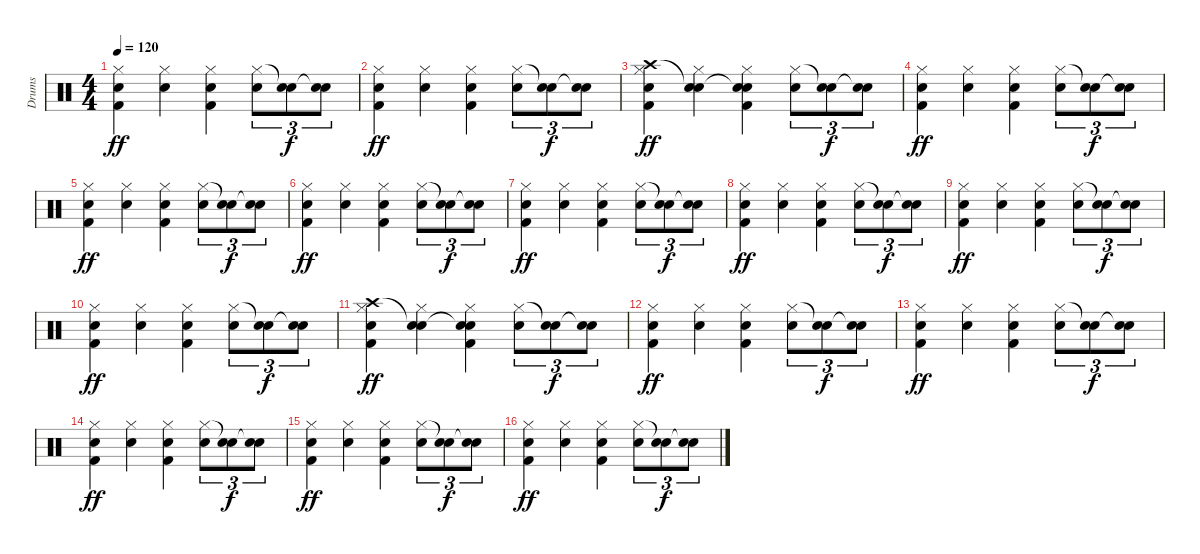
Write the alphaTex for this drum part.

\track ("Drums" "Drums") {instrument percussion}
\staff {score}
\articulation defaults
\ts (4 4)
\tempo 120
\clef neutral
\ks c
("Hi-Hat (closed)" "Snare (hit) 2" "Kick (hit) 2").4{dy ff} ("Hi-Hat (closed)" "Snare (hit) 2").4 ("Hi-Hat (closed)" "Snare (hit) 2" "Kick (hit) 2").4 ("Hi-Hat (closed)" "Snare (hit) 2").8{tu (3 2)} ("Snare (hit)"{t} "Snare (hit) 2").8{tu (3 2) dy f} ("Snare (hit)"{t} "Snare (hit) 2").8{tu (3 2)} |
("Hi-Hat (closed)" "Snare (hit) 2" "Kick (hit) 2").4{dy ff} ("Hi-Hat (closed)" "Snare (hit) 2").4 ("Hi-Hat (closed)" "Snare (hit) 2" "Kick (hit) 2").4 ("Hi-Hat (closed)" "Snare (hit) 2").8{tu (3 2)} ("Snare (hit)"{t} "Snare (hit) 2").8{tu (3 2) dy f} ("Snare (hit)"{t} "Snare (hit) 2").8{tu (3 2)} |
("Crash high (hit)" "Hi-Hat (closed)" "Snare (hit) 2" "Kick (hit) 2").4{dy ff} ("Snare (hit)"{t} "Hi-Hat (closed)" "Snare (hit) 2").4 ("Snare (hit)"{t} "Hi-Hat (closed)" "Snare (hit) 2" "Kick (hit) 2").4 ("Hi-Hat (closed)" "Snare (hit) 2").8{tu (3 2)} ("Snare (hit)"{t} "Snare (hit) 2").8{tu (3 2) dy f} ("Snare (hit)"{t} "Snare (hit) 2").8{tu (3 2)} |
("Hi-Hat (closed)" "Snare (hit) 2" "Kick (hit) 2").4{dy ff} ("Hi-Hat (closed)" "Snare (hit) 2").4 ("Hi-Hat (closed)" "Snare (hit) 2" "Kick (hit) 2").4 ("Hi-Hat (closed)" "Snare (hit) 2").8{tu (3 2)} ("Snare (hit)"{t} "Snare (hit) 2").8{tu (3 2) dy f} ("Snare (hit)"{t} "Snare (hit) 2").8{tu (3 2)} |
("Hi-Hat (closed)" "Snare (hit) 2" "Kick (hit) 2").4{dy ff} ("Hi-Hat (closed)" "Snare (hit) 2").4 ("Hi-Hat (closed)" "Snare (hit) 2" "Kick (hit) 2").4 ("Hi-Hat (closed)" "Snare (hit) 2").8{tu (3 2)} ("Snare (hit)"{t} "Snare (hit) 2").8{tu (3 2) dy f} ("Snare (hit)"{t} "Snare (hit) 2").8{tu (3 2)} |
("Hi-Hat (closed)" "Snare (hit) 2" "Kick (hit) 2").4{dy ff} ("Hi-Hat (closed)" "Snare (hit) 2").4 ("Hi-Hat (closed)" "Snare (hit) 2" "Kick (hit) 2").4 ("Hi-Hat (closed)" "Snare (hit) 2").8{tu (3 2)} ("Snare (hit)"{t} "Snare (hit) 2").8{tu (3 2) dy f} ("Snare (hit)"{t} "Snare (hit) 2").8{tu (3 2)} |
("Hi-Hat (closed)" "Snare (hit) 2" "Kick (hit) 2").4{dy ff} ("Hi-Hat (closed)" "Snare (hit) 2").4 ("Hi-Hat (closed)" "Snare (hit) 2" "Kick (hit) 2").4 ("Hi-Hat (closed)" "Snare (hit) 2").8{tu (3 2)} ("Snare (hit)"{t} "Snare (hit) 2").8{tu (3 2) dy f} ("Snare (hit)"{t} "Snare (hit) 2").8{tu (3 2)} |
("Hi-Hat (closed)" "Snare (hit) 2" "Kick (hit) 2").4{dy ff} ("Hi-Hat (closed)" "Snare (hit) 2").4 ("Hi-Hat (closed)" "Snare (hit) 2" "Kick (hit) 2").4 ("Hi-Hat (closed)" "Snare (hit) 2").8{tu (3 2)} ("Snare (hit)"{t} "Snare (hit) 2").8{tu (3 2) dy f} ("Snare (hit)"{t} "Snare (hit) 2").8{tu (3 2)} |
("Hi-Hat (closed)" "Snare (hit) 2" "Kick (hit) 2").4{dy ff} ("Hi-Hat (closed)" "Snare (hit) 2").4 ("Hi-Hat (closed)" "Snare (hit) 2" "Kick (hit) 2").4 ("Hi-Hat (closed)" "Snare (hit) 2").8{tu (3 2)} ("Snare (hit)"{t} "Snare (hit) 2").8{tu (3 2) dy f} ("Snare (hit)"{t} "Snare (hit) 2").8{tu (3 2)} |
("Hi-Hat (closed)" "Snare (hit) 2" "Kick (hit) 2").4{dy ff} ("Hi-Hat (closed)" "Snare (hit) 2").4 ("Hi-Hat (closed)" "Snare (hit) 2" "Kick (hit) 2").4 ("Hi-Hat (closed)" "Snare (hit) 2").8{tu (3 2)} ("Snare (hit)"{t} "Snare (hit) 2").8{tu (3 2) dy f} ("Snare (hit)"{t} "Snare (hit) 2").8{tu (3 2)} |
("Crash high (hit)" "Hi-Hat (closed)" "Snare (hit) 2" "Kick (hit) 2").4{dy ff} ("Snare (hit)"{t} "Hi-Hat (closed)" "Snare (hit) 2").4 ("Snare (hit)"{t} "Hi-Hat (closed)" "Snare (hit) 2" "Kick (hit) 2").4 ("Hi-Hat (closed)" "Snare (hit) 2").8{tu (3 2)} ("Snare (hit)"{t} "Snare (hit) 2").8{tu (3 2) dy f} ("Snare (hit)"{t} "Snare (hit) 2").8{tu (3 2)} |
("Hi-Hat (closed)" "Snare (hit) 2" "Kick (hit) 2").4{dy ff} ("Hi-Hat (closed)" "Snare (hit) 2").4 ("Hi-Hat (closed)" "Snare (hit) 2" "Kick (hit) 2").4 ("Hi-Hat (closed)" "Snare (hit) 2").8{tu (3 2)} ("Snare (hit)"{t} "Snare (hit) 2").8{tu (3 2) dy f} ("Snare (hit)"{t} "Snare (hit) 2").8{tu (3 2)} |
("Hi-Hat (closed)" "Snare (hit) 2" "Kick (hit) 2").4{dy ff} ("Hi-Hat (closed)" "Snare (hit) 2").4 ("Hi-Hat (closed)" "Snare (hit) 2" "Kick (hit) 2").4 ("Hi-Hat (closed)" "Snare (hit) 2").8{tu (3 2)} ("Snare (hit)"{t} "Snare (hit) 2").8{tu (3 2) dy f} ("Snare (hit)"{t} "Snare (hit) 2").8{tu (3 2)} |
("Hi-Hat (closed)" "Snare (hit) 2" "Kick (hit) 2").4{dy ff} ("Hi-Hat (closed)" "Snare (hit) 2").4 ("Hi-Hat (closed)" "Snare (hit) 2" "Kick (hit) 2").4 ("Hi-Hat (closed)" "Snare (hit) 2").8{tu (3 2)} ("Snare (hit)"{t} "Snare (hit) 2").8{tu (3 2) dy f} ("Snare (hit)"{t} "Snare (hit) 2").8{tu (3 2)} |
("Hi-Hat (closed)" "Snare (hit) 2" "Kick (hit) 2").4{dy ff} ("Hi-Hat (closed)" "Snare (hit) 2").4 ("Hi-Hat (closed)" "Snare (hit) 2" "Kick (hit) 2").4 ("Hi-Hat (closed)" "Snare (hit) 2").8{tu (3 2)} ("Snare (hit)"{t} "Snare (hit) 2").8{tu (3 2) dy f} ("Snare (hit)"{t} "Snare (hit) 2").8{tu (3 2)} |
("Hi-Hat (closed)" "Snare (hit) 2" "Kick (hit) 2").4{dy ff} ("Hi-Hat (closed)" "Snare (hit) 2").4 ("Hi-Hat (closed)" "Snare (hit) 2" "Kick (hit) 2").4 ("Hi-Hat (closed)" "Snare (hit) 2").8{tu (3 2)} ("Snare (hit)"{t} "Snare (hit) 2").8{tu (3 2) dy f} ("Snare (hit)"{t} "Snare (hit) 2").8{tu (3 2)}
